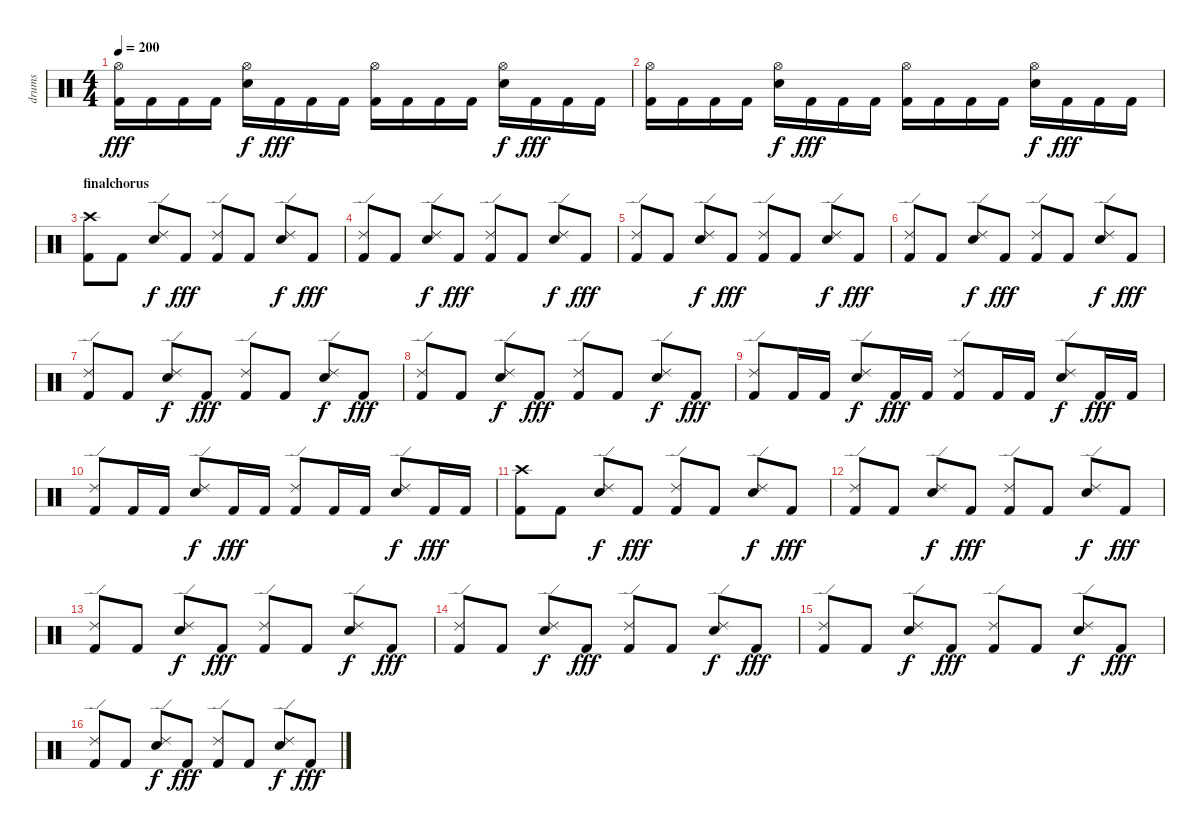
\track ("drums" "drums") {instrument percussion}
\staff {score}
\articulation defaults
\ts (4 4)
\tempo 200
\clef neutral
\ks c
("Hi-Hat (open)" "Kick (hit) 2").16{dy fff} "Kick (hit) 2".16 "Kick (hit) 2".16 "Kick (hit) 2".16 ("Hi-Hat (open)" "Snare (hit) 2").16{dy f} "Kick (hit) 2".16{dy fff} "Kick (hit) 2".16 "Kick (hit) 2".16 ("Hi-Hat (open)" "Kick (hit) 2").16 "Kick (hit) 2".16 "Kick (hit) 2".16 "Kick (hit) 2".16 ("Hi-Hat (open)" "Snare (hit) 2").16{dy f} "Kick (hit) 2".16{dy fff} "Kick (hit) 2".16 "Kick (hit) 2".16 |
("Hi-Hat (open)" "Kick (hit) 2").16 "Kick (hit) 2".16 "Kick (hit) 2".16 "Kick (hit) 2".16 ("Hi-Hat (open)" "Snare (hit) 2").16{dy f} "Kick (hit) 2".16{dy fff} "Kick (hit) 2".16 "Kick (hit) 2".16 ("Hi-Hat (open)" "Kick (hit) 2").16 "Kick (hit) 2".16 "Kick (hit) 2".16 "Kick (hit) 2".16 ("Hi-Hat (open)" "Snare (hit) 2").16{dy f} "Kick (hit) 2".16{dy fff} "Kick (hit) 2".16 "Kick (hit) 2".16 |
\section ("" "finalchorus")
("Crash high (hit)" "Kick (hit) 2").8 "Kick (hit) 2".8 ("Ride (edge) 2" "Snare (hit) 2").8{dy f} "Kick (hit) 2".8{dy fff} ("Ride (edge) 2" "Kick (hit) 2").8 "Kick (hit) 2".8 ("Ride (edge) 2" "Snare (hit) 2").8{dy f} "Kick (hit) 2".8{dy fff} |
("Ride (edge) 2" "Kick (hit) 2").8 "Kick (hit) 2".8 ("Ride (edge) 2" "Snare (hit) 2").8{dy f} "Kick (hit) 2".8{dy fff} ("Ride (edge) 2" "Kick (hit) 2").8 "Kick (hit) 2".8 ("Ride (edge) 2" "Snare (hit) 2").8{dy f} "Kick (hit) 2".8{dy fff} |
("Ride (edge) 2" "Kick (hit) 2").8 "Kick (hit) 2".8 ("Ride (edge) 2" "Snare (hit) 2").8{dy f} "Kick (hit) 2".8{dy fff} ("Ride (edge) 2" "Kick (hit) 2").8 "Kick (hit) 2".8 ("Ride (edge) 2" "Snare (hit) 2").8{dy f} "Kick (hit) 2".8{dy fff} |
("Ride (edge) 2" "Kick (hit) 2").8 "Kick (hit) 2".8 ("Ride (edge) 2" "Snare (hit) 2").8{dy f} "Kick (hit) 2".8{dy fff} ("Ride (edge) 2" "Kick (hit) 2").8 "Kick (hit) 2".8 ("Ride (edge) 2" "Snare (hit) 2").8{dy f} "Kick (hit) 2".8{dy fff} |
("Ride (edge) 2" "Kick (hit) 2").8 "Kick (hit) 2".8 ("Ride (edge) 2" "Snare (hit) 2").8{dy f} "Kick (hit) 2".8{dy fff} ("Ride (edge) 2" "Kick (hit) 2").8 "Kick (hit) 2".8 ("Ride (edge) 2" "Snare (hit) 2").8{dy f} "Kick (hit) 2".8{dy fff} |
("Ride (edge) 2" "Kick (hit) 2").8 "Kick (hit) 2".8 ("Ride (edge) 2" "Snare (hit) 2").8{dy f} "Kick (hit) 2".8{dy fff} ("Ride (edge) 2" "Kick (hit) 2").8 "Kick (hit) 2".8 ("Ride (edge) 2" "Snare (hit) 2").8{dy f} "Kick (hit) 2".8{dy fff} |
("Ride (edge) 2" "Kick (hit) 2").8 "Kick (hit) 2".16 "Kick (hit) 2".16 ("Ride (edge) 2" "Snare (hit) 2").8{dy f} "Kick (hit) 2".16{dy fff} "Kick (hit) 2".16 ("Ride (edge) 2" "Kick (hit) 2").8 "Kick (hit) 2".16 "Kick (hit) 2".16 ("Ride (edge) 2" "Snare (hit) 2").8{dy f} "Kick (hit) 2".16{dy fff} "Kick (hit) 2".16 |
("Ride (edge) 2" "Kick (hit) 2").8 "Kick (hit) 2".16 "Kick (hit) 2".16 ("Ride (edge) 2" "Snare (hit) 2").8{dy f} "Kick (hit) 2".16{dy fff} "Kick (hit) 2".16 ("Ride (edge) 2" "Kick (hit) 2").8 "Kick (hit) 2".16 "Kick (hit) 2".16 ("Ride (edge) 2" "Snare (hit) 2").8{dy f} "Kick (hit) 2".16{dy fff} "Kick (hit) 2".16 |
("Crash high (hit)" "Kick (hit) 2").8 "Kick (hit) 2".8 ("Ride (edge) 2" "Snare (hit) 2").8{dy f} "Kick (hit) 2".8{dy fff} ("Ride (edge) 2" "Kick (hit) 2").8 "Kick (hit) 2".8 ("Ride (edge) 2" "Snare (hit) 2").8{dy f} "Kick (hit) 2".8{dy fff} |
("Ride (edge) 2" "Kick (hit) 2").8 "Kick (hit) 2".8 ("Ride (edge) 2" "Snare (hit) 2").8{dy f} "Kick (hit) 2".8{dy fff} ("Ride (edge) 2" "Kick (hit) 2").8 "Kick (hit) 2".8 ("Ride (edge) 2" "Snare (hit) 2").8{dy f} "Kick (hit) 2".8{dy fff} |
("Ride (edge) 2" "Kick (hit) 2").8 "Kick (hit) 2".8 ("Ride (edge) 2" "Snare (hit) 2").8{dy f} "Kick (hit) 2".8{dy fff} ("Ride (edge) 2" "Kick (hit) 2").8 "Kick (hit) 2".8 ("Ride (edge) 2" "Snare (hit) 2").8{dy f} "Kick (hit) 2".8{dy fff} |
("Ride (edge) 2" "Kick (hit) 2").8 "Kick (hit) 2".8 ("Ride (edge) 2" "Snare (hit) 2").8{dy f} "Kick (hit) 2".8{dy fff} ("Ride (edge) 2" "Kick (hit) 2").8 "Kick (hit) 2".8 ("Ride (edge) 2" "Snare (hit) 2").8{dy f} "Kick (hit) 2".8{dy fff} |
("Ride (edge) 2" "Kick (hit) 2").8 "Kick (hit) 2".8 ("Ride (edge) 2" "Snare (hit) 2").8{dy f} "Kick (hit) 2".8{dy fff} ("Ride (edge) 2" "Kick (hit) 2").8 "Kick (hit) 2".8 ("Ride (edge) 2" "Snare (hit) 2").8{dy f} "Kick (hit) 2".8{dy fff} |
("Ride (edge) 2" "Kick (hit) 2").8 "Kick (hit) 2".8 ("Ride (edge) 2" "Snare (hit) 2").8{dy f} "Kick (hit) 2".8{dy fff} ("Ride (edge) 2" "Kick (hit) 2").8 "Kick (hit) 2".8 ("Ride (edge) 2" "Snare (hit) 2").8{dy f} "Kick (hit) 2".8{dy fff}
